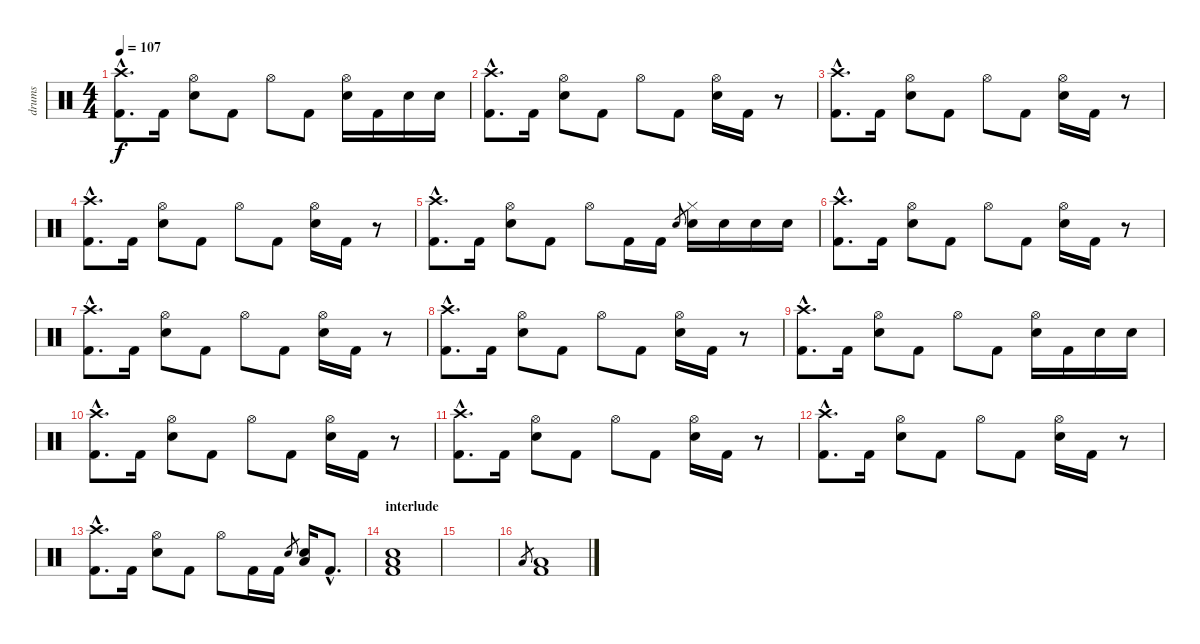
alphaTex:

\track ("drums" "drums") {instrument percussion}
\staff {score}
\articulation defaults
\ts (4 4)
\tempo 107
\clef neutral
\ks c
("Crash high (hit)"{hac} "Kick (hit) 2"{hac}).8{d dy f} "Kick (hit) 2".16 ("Hi-Hat (open)" "Electric Snare (hit)").8 "Kick (hit) 2".8 "Hi-Hat (open)".8 "Kick (hit) 2".8 ("Hi-Hat (open)" "Electric Snare (hit)").16 "Kick (hit) 2".16 "Electric Snare (hit)".16 "Electric Snare (hit)".16 |
("Crash high (hit)"{hac} "Kick (hit) 2"{hac}).8{d} "Kick (hit) 2".16 ("Hi-Hat (open)" "Electric Snare (hit)").8 "Kick (hit) 2".8 "Hi-Hat (open)".8 "Kick (hit) 2".8 ("Hi-Hat (open)" "Electric Snare (hit)").16 "Kick (hit) 2".16 r.8 |
("Crash high (hit)"{hac} "Kick (hit) 2"{hac}).8{d} "Kick (hit) 2".16 ("Hi-Hat (open)" "Electric Snare (hit)").8 "Kick (hit) 2".8 "Hi-Hat (open)".8 "Kick (hit) 2".8 ("Hi-Hat (open)" "Electric Snare (hit)").16 "Kick (hit) 2".16 r.8 |
("Crash high (hit)"{hac} "Kick (hit) 2"{hac}).8{d} "Kick (hit) 2".16 ("Hi-Hat (open)" "Electric Snare (hit)").8 "Kick (hit) 2".8 "Hi-Hat (open)".8 "Kick (hit) 2".8 ("Hi-Hat (open)" "Electric Snare (hit)").16 "Kick (hit) 2".16 r.8 |
("Crash high (hit)"{hac} "Kick (hit) 2"{hac}).8{d} "Kick (hit) 2".16 ("Hi-Hat (open)" "Electric Snare (hit)").8 "Kick (hit) 2".8 "Hi-Hat (open)".8 "Kick (hit) 2".16 "Kick (hit) 2".16 "Electric Snare (hit)".8{gr} ("Hi-Hat (closed)" "Electric Snare (hit)").16 "Electric Snare (hit)".16 "Electric Snare (hit)".16 "Electric Snare (hit)".16 |
("Crash high (hit)"{hac} "Kick (hit) 2"{hac}).8{d} "Kick (hit) 2".16 ("Hi-Hat (open)" "Electric Snare (hit)").8 "Kick (hit) 2".8 "Hi-Hat (open)".8 "Kick (hit) 2".8 ("Hi-Hat (open)" "Electric Snare (hit)").16 "Kick (hit) 2".16 r.8 |
("Crash high (hit)"{hac} "Kick (hit) 2"{hac}).8{d} "Kick (hit) 2".16 ("Hi-Hat (open)" "Electric Snare (hit)").8 "Kick (hit) 2".8 "Hi-Hat (open)".8 "Kick (hit) 2".8 ("Hi-Hat (open)" "Electric Snare (hit)").16 "Kick (hit) 2".16 r.8 |
("Crash high (hit)"{hac} "Kick (hit) 2"{hac}).8{d} "Kick (hit) 2".16 ("Hi-Hat (open)" "Electric Snare (hit)").8 "Kick (hit) 2".8 "Hi-Hat (open)".8 "Kick (hit) 2".8 ("Hi-Hat (open)" "Electric Snare (hit)").16 "Kick (hit) 2".16 r.8 |
("Crash high (hit)"{hac} "Kick (hit) 2"{hac}).8{d} "Kick (hit) 2".16 ("Hi-Hat (open)" "Electric Snare (hit)").8 "Kick (hit) 2".8 "Hi-Hat (open)".8 "Kick (hit) 2".8 ("Hi-Hat (open)" "Electric Snare (hit)").16 "Kick (hit) 2".16 "Electric Snare (hit)".16 "Electric Snare (hit)".16 |
("Crash high (hit)"{hac} "Kick (hit) 2"{hac}).8{d} "Kick (hit) 2".16 ("Hi-Hat (open)" "Electric Snare (hit)").8 "Kick (hit) 2".8 "Hi-Hat (open)".8 "Kick (hit) 2".8 ("Hi-Hat (open)" "Electric Snare (hit)").16 "Kick (hit) 2".16 r.8 |
("Crash high (hit)"{hac} "Kick (hit) 2"{hac}).8{d} "Kick (hit) 2".16 ("Hi-Hat (open)" "Electric Snare (hit)").8 "Kick (hit) 2".8 "Hi-Hat (open)".8 "Kick (hit) 2".8 ("Hi-Hat (open)" "Electric Snare (hit)").16 "Kick (hit) 2".16 r.8 |
("Crash high (hit)"{hac} "Kick (hit) 2"{hac}).8{d} "Kick (hit) 2".16 ("Hi-Hat (open)" "Electric Snare (hit)").8 "Kick (hit) 2".8 "Hi-Hat (open)".8 "Kick (hit) 2".8 ("Hi-Hat (open)" "Electric Snare (hit)").16 "Kick (hit) 2".16 r.8 |
("Crash high (hit)"{hac} "Kick (hit) 2"{hac}).8{d} "Kick (hit) 2".16 ("Hi-Hat (open)" "Electric Snare (hit)").8 "Kick (hit) 2".8 "Hi-Hat (open)".8 "Kick (hit) 2".16 "Kick (hit) 2".16 "Electric Snare (hit)".8{gr} ("Low Floor Tom (hit)" "Electric Snare (hit)").16 "Kick (hit) 2"{hac}.8{d} |
\section ("" "interlude")
("Low Floor Tom (hit)" "Electric Snare (hit)" "Kick (hit) 2").1 |
|
"Low Floor Tom (hit)".8{gr} ("Low Floor Tom (hit)" "Kick (hit) 2").1
